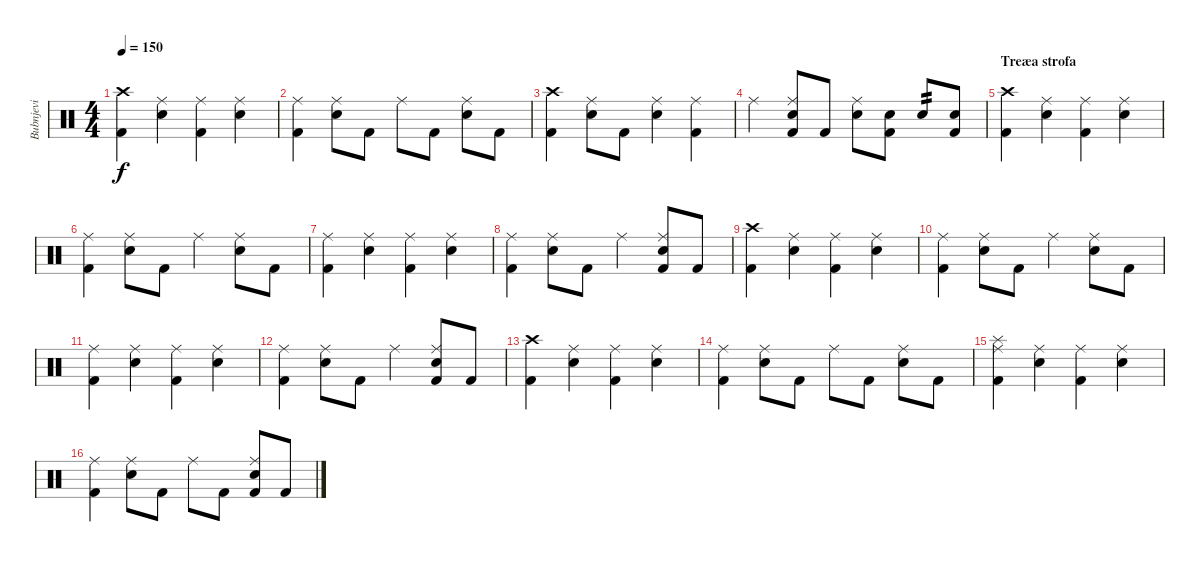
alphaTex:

\track ("Bubnjevi" "Bubnjevi") {instrument percussion}
\staff {score}
\articulation defaults
\ts (4 4)
\tempo 150
\clef neutral
\ks c
("Crash high (hit)" "Kick (hit) 2").4{dy f} ("Ride (middle)" "Snare (hit) 2").4 ("Ride (middle)" "Kick (hit) 2").4 ("Ride (middle)" "Snare (hit) 2").4 |
("Ride (middle)" "Kick (hit) 2").4 ("Ride (middle)" "Snare (hit) 2").8 "Kick (hit) 2".8 "Ride (middle)".8 "Kick (hit) 2".8 ("Ride (middle)" "Snare (hit) 2").8 "Kick (hit) 2".8 |
("Crash high (hit)" "Kick (hit) 2").4 ("Ride (middle)" "Snare (hit) 2").8 "Kick (hit) 2".8 ("Ride (middle)" "Snare (hit) 2").4 ("Ride (middle)" "Kick (hit) 2").4 |
"Ride (middle)".4 ("Ride (middle)" "Snare (hit) 2" "Kick (hit) 2").8 "Kick (hit) 2".8 ("Ride (middle)" "Snare (hit) 2").8 ("Snare (hit) 2" "Kick (hit) 2").8 "Snare (hit) 2".8{tp 2} ("Snare (hit) 2" "Kick (hit) 2").8 |
\section ("" "Treæa strofa")
("Crash high (hit)" "Kick (hit) 2").4 ("Ride (middle)" "Snare (hit) 2").4 ("Ride (middle)" "Kick (hit) 2").4 ("Ride (middle)" "Snare (hit) 2").4 |
("Ride (middle)" "Kick (hit) 2").4 ("Ride (middle)" "Snare (hit) 2").8 "Kick (hit) 2".8 "Ride (middle)".4 ("Ride (middle)" "Snare (hit) 2").8 "Kick (hit) 2".8 |
("Ride (middle)" "Kick (hit) 2").4 ("Ride (middle)" "Snare (hit) 2").4 ("Ride (middle)" "Kick (hit) 2").4 ("Ride (middle)" "Snare (hit) 2").4 |
("Ride (middle)" "Kick (hit) 2").4 ("Ride (middle)" "Snare (hit) 2").8 "Kick (hit) 2".8 "Ride (middle)".4 ("Ride (middle)" "Snare (hit) 2" "Kick (hit) 2").8 "Kick (hit) 2".8 |
("Crash high (hit)" "Kick (hit) 2").4 ("Ride (middle)" "Snare (hit) 2").4 ("Ride (middle)" "Kick (hit) 2").4 ("Ride (middle)" "Snare (hit) 2").4 |
("Ride (middle)" "Kick (hit) 2").4 ("Ride (middle)" "Snare (hit) 2").8 "Kick (hit) 2".8 "Ride (middle)".4 ("Ride (middle)" "Snare (hit) 2").8 "Kick (hit) 2".8 |
("Ride (middle)" "Kick (hit) 2").4 ("Ride (middle)" "Snare (hit) 2").4 ("Ride (middle)" "Kick (hit) 2").4 ("Ride (middle)" "Snare (hit) 2").4 |
("Ride (middle)" "Kick (hit) 2").4 ("Ride (middle)" "Snare (hit) 2").8 "Kick (hit) 2".8 "Ride (middle)".4 ("Ride (middle)" "Snare (hit) 2" "Kick (hit) 2").8 "Kick (hit) 2".8 |
("Crash high (hit)" "Kick (hit) 2").4 ("Ride (middle)" "Snare (hit) 2").4 ("Ride (middle)" "Kick (hit) 2").4 ("Ride (middle)" "Snare (hit) 2").4 |
("Ride (middle)" "Kick (hit) 2").4 ("Ride (middle)" "Snare (hit) 2").8 "Kick (hit) 2".8 "Ride (middle)".8 "Kick (hit) 2".8 ("Ride (middle)" "Snare (hit) 2").8 "Kick (hit) 2".8 |
("Splash (hit)" "Ride (middle)" "Kick (hit) 2").4 ("Ride (middle)" "Snare (hit) 2").4 ("Ride (middle)" "Kick (hit) 2").4 ("Ride (middle)" "Snare (hit) 2").4 |
("Ride (middle)" "Kick (hit) 2").4 ("Ride (middle)" "Snare (hit) 2").8 "Kick (hit) 2".8 "Ride (middle)".8 "Kick (hit) 2".8 ("Ride (middle)" "Snare (hit) 2" "Kick (hit) 2").8 "Kick (hit) 2".8
